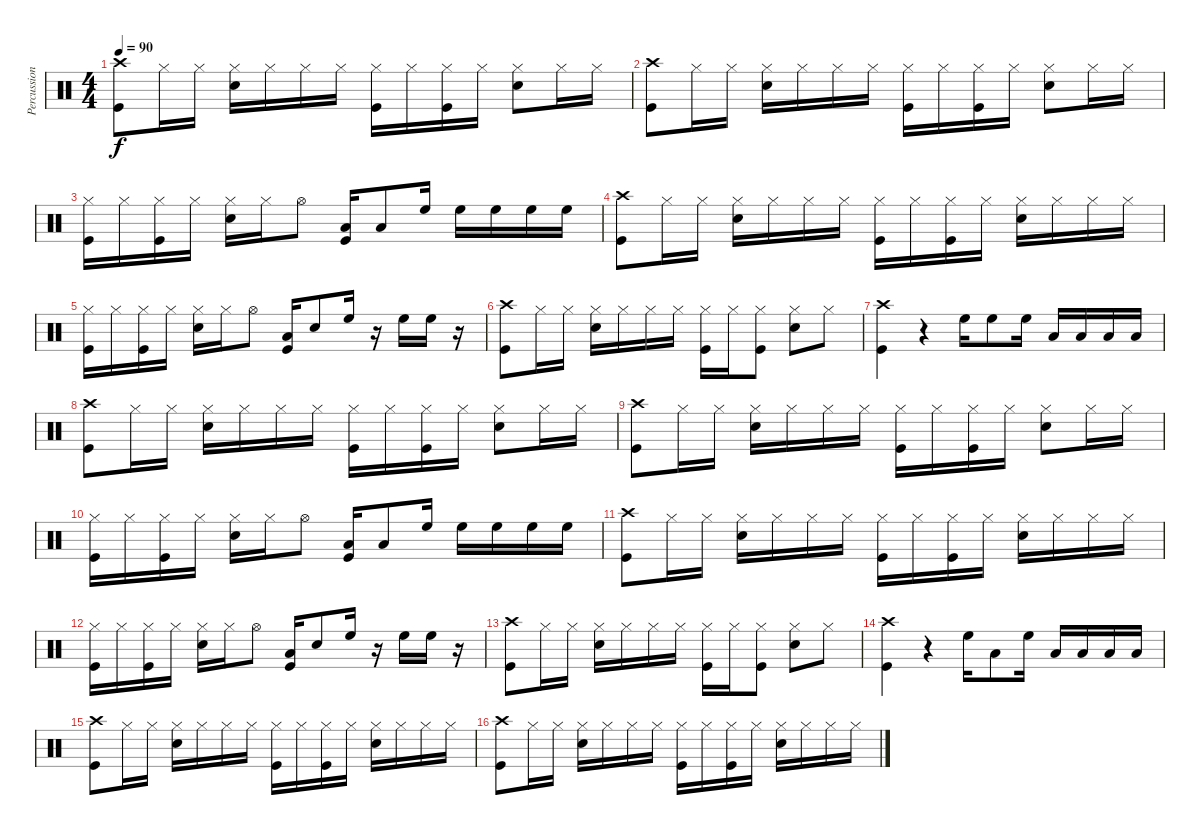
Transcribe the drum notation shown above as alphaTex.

\track ("Percussion" "Percussion") {instrument percussion}
\staff {score}
\articulation defaults
\ts (4 4)
\tempo 90
\clef neutral
\ks c
("Crash high (hit)" "Kick (hit)").8{dy f} "Hi-Hat (closed)".16 "Hi-Hat (closed)".16 ("Hi-Hat (closed)" "Snare (hit) 2").16 "Hi-Hat (closed)".16 "Hi-Hat (closed)".16 "Hi-Hat (closed)".16 ("Hi-Hat (closed)" "Kick (hit)").16 "Hi-Hat (closed)".16 ("Hi-Hat (closed)" "Kick (hit)").16 "Hi-Hat (closed)".16 ("Hi-Hat (closed)" "Snare (hit) 2").8 "Hi-Hat (closed)".16 "Hi-Hat (closed)".16 |
("Crash high (hit)" "Kick (hit)").8 "Hi-Hat (closed)".16 "Hi-Hat (closed)".16 ("Hi-Hat (closed)" "Snare (hit) 2").16 "Hi-Hat (closed)".16 "Hi-Hat (closed)".16 "Hi-Hat (closed)".16 ("Hi-Hat (closed)" "Kick (hit)").16 "Hi-Hat (closed)".16 ("Hi-Hat (closed)" "Kick (hit)").16 "Hi-Hat (closed)".16 ("Hi-Hat (closed)" "Snare (hit) 2").8 "Hi-Hat (closed)".16 "Hi-Hat (closed)".16 |
("Hi-Hat (closed)" "Kick (hit)").16 "Hi-Hat (closed)".16 ("Hi-Hat (closed)" "Kick (hit)").16 "Hi-Hat (closed)".16 ("Hi-Hat (closed)" "Snare (hit) 2").16 "Hi-Hat (closed)".16 "Hi-Hat (open)".8 ("Low Tom (hit)" "Kick (hit)").16 "Low Tom (hit)".8 "High Floor Tom (hit)".16 "High Floor Tom (hit)".16 "High Floor Tom (hit)".16 "High Floor Tom (hit)".16 "High Floor Tom (hit)".16 |
("Crash high (hit)" "Kick (hit)").8 "Hi-Hat (closed)".16 "Hi-Hat (closed)".16 ("Hi-Hat (closed)" "Snare (hit) 2").16 "Hi-Hat (closed)".16 "Hi-Hat (closed)".16 "Hi-Hat (closed)".16 ("Hi-Hat (closed)" "Kick (hit)").16 "Hi-Hat (closed)".16 ("Hi-Hat (closed)" "Kick (hit)").16 "Hi-Hat (closed)".16 ("Hi-Hat (closed)" "Snare (hit) 2").16 "Hi-Hat (closed)".16 "Hi-Hat (closed)".16 "Hi-Hat (closed)".16 |
("Hi-Hat (closed)" "Kick (hit)").16 "Hi-Hat (closed)".16 ("Hi-Hat (closed)" "Kick (hit)").16 "Hi-Hat (closed)".16 ("Hi-Hat (closed)" "Snare (hit) 2").16 "Hi-Hat (closed)".16 "Hi-Hat (open)".8 ("Low Tom (hit)" "Kick (hit)").16 "Snare (hit) 2".8 "High Floor Tom (hit)".16 r.16 "High Floor Tom (hit)".16 "High Floor Tom (hit)".16 r.16 |
("Crash high (hit)" "Kick (hit)").8 "Hi-Hat (closed)".16 "Hi-Hat (closed)".16 ("Hi-Hat (closed)" "Snare (hit) 2").16 "Hi-Hat (closed)".16 "Hi-Hat (closed)".16 "Hi-Hat (closed)".16 ("Hi-Hat (closed)" "Kick (hit)").16 "Hi-Hat (closed)".16 ("Hi-Hat (closed)" "Kick (hit)").8 ("Hi-Hat (closed)" "Snare (hit) 2").8 "Hi-Hat (closed)".8 |
("Crash high (hit)" "Kick (hit)").4 r.4 "High Floor Tom (hit)".16 "High Floor Tom (hit)".8 "High Floor Tom (hit)".16 "Low Tom (hit)".16 "Low Tom (hit)".16 "Low Tom (hit)".16 "Low Tom (hit)".16 |
("Crash high (hit)" "Kick (hit)").8 "Hi-Hat (closed)".16 "Hi-Hat (closed)".16 ("Hi-Hat (closed)" "Snare (hit) 2").16 "Hi-Hat (closed)".16 "Hi-Hat (closed)".16 "Hi-Hat (closed)".16 ("Hi-Hat (closed)" "Kick (hit)").16 "Hi-Hat (closed)".16 ("Hi-Hat (closed)" "Kick (hit)").16 "Hi-Hat (closed)".16 ("Hi-Hat (closed)" "Snare (hit) 2").8 "Hi-Hat (closed)".16 "Hi-Hat (closed)".16 |
("Crash high (hit)" "Kick (hit)").8 "Hi-Hat (closed)".16 "Hi-Hat (closed)".16 ("Hi-Hat (closed)" "Snare (hit) 2").16 "Hi-Hat (closed)".16 "Hi-Hat (closed)".16 "Hi-Hat (closed)".16 ("Hi-Hat (closed)" "Kick (hit)").16 "Hi-Hat (closed)".16 ("Hi-Hat (closed)" "Kick (hit)").16 "Hi-Hat (closed)".16 ("Hi-Hat (closed)" "Snare (hit) 2").8 "Hi-Hat (closed)".16 "Hi-Hat (closed)".16 |
("Hi-Hat (closed)" "Kick (hit)").16 "Hi-Hat (closed)".16 ("Hi-Hat (closed)" "Kick (hit)").16 "Hi-Hat (closed)".16 ("Hi-Hat (closed)" "Snare (hit) 2").16 "Hi-Hat (closed)".16 "Hi-Hat (open)".8 ("Low Tom (hit)" "Kick (hit)").16 "Low Tom (hit)".8 "High Floor Tom (hit)".16 "High Floor Tom (hit)".16 "High Floor Tom (hit)".16 "High Floor Tom (hit)".16 "High Floor Tom (hit)".16 |
("Crash high (hit)" "Kick (hit)").8 "Hi-Hat (closed)".16 "Hi-Hat (closed)".16 ("Hi-Hat (closed)" "Snare (hit) 2").16 "Hi-Hat (closed)".16 "Hi-Hat (closed)".16 "Hi-Hat (closed)".16 ("Hi-Hat (closed)" "Kick (hit)").16 "Hi-Hat (closed)".16 ("Hi-Hat (closed)" "Kick (hit)").16 "Hi-Hat (closed)".16 ("Hi-Hat (closed)" "Snare (hit) 2").16 "Hi-Hat (closed)".16 "Hi-Hat (closed)".16 "Hi-Hat (closed)".16 |
("Hi-Hat (closed)" "Kick (hit)").16 "Hi-Hat (closed)".16 ("Hi-Hat (closed)" "Kick (hit)").16 "Hi-Hat (closed)".16 ("Hi-Hat (closed)" "Snare (hit) 2").16 "Hi-Hat (closed)".16 "Hi-Hat (open)".8 ("Low Tom (hit)" "Kick (hit)").16 "Snare (hit) 2".8 "High Floor Tom (hit)".16 r.16 "High Floor Tom (hit)".16 "High Floor Tom (hit)".16 r.16 |
("Crash high (hit)" "Kick (hit)").8 "Hi-Hat (closed)".16 "Hi-Hat (closed)".16 ("Hi-Hat (closed)" "Snare (hit) 2").16 "Hi-Hat (closed)".16 "Hi-Hat (closed)".16 "Hi-Hat (closed)".16 ("Hi-Hat (closed)" "Kick (hit)").16 "Hi-Hat (closed)".16 ("Hi-Hat (closed)" "Kick (hit)").8 ("Hi-Hat (closed)" "Snare (hit) 2").8 "Hi-Hat (closed)".8 |
("Crash high (hit)" "Kick (hit)").4 r.4 "High Floor Tom (hit)".16 "Low Tom (hit)".8 "High Floor Tom (hit)".16 "Low Tom (hit)".16 "Low Tom (hit)".16 "Low Tom (hit)".16 "Low Tom (hit)".16 |
("Crash high (hit)" "Kick (hit)").8 "Hi-Hat (closed)".16 "Hi-Hat (closed)".16 ("Hi-Hat (closed)" "Snare (hit) 2").16 "Hi-Hat (closed)".16 "Hi-Hat (closed)".16 "Hi-Hat (closed)".16 ("Hi-Hat (closed)" "Kick (hit)").16 "Hi-Hat (closed)".16 ("Hi-Hat (closed)" "Kick (hit)").16 "Hi-Hat (closed)".16 ("Hi-Hat (closed)" "Snare (hit) 2").16 "Hi-Hat (closed)".16 "Hi-Hat (closed)".16 "Hi-Hat (closed)".16 |
("Crash high (hit)" "Kick (hit)").8 "Hi-Hat (closed)".16 "Hi-Hat (closed)".16 ("Hi-Hat (closed)" "Snare (hit) 2").16 "Hi-Hat (closed)".16 "Hi-Hat (closed)".16 "Hi-Hat (closed)".16 ("Hi-Hat (closed)" "Kick (hit)").16 "Hi-Hat (closed)".16 ("Hi-Hat (closed)" "Kick (hit)").16 "Hi-Hat (closed)".16 ("Hi-Hat (closed)" "Snare (hit) 2").16 "Hi-Hat (closed)".16 "Hi-Hat (closed)".16 "Hi-Hat (closed)".16
